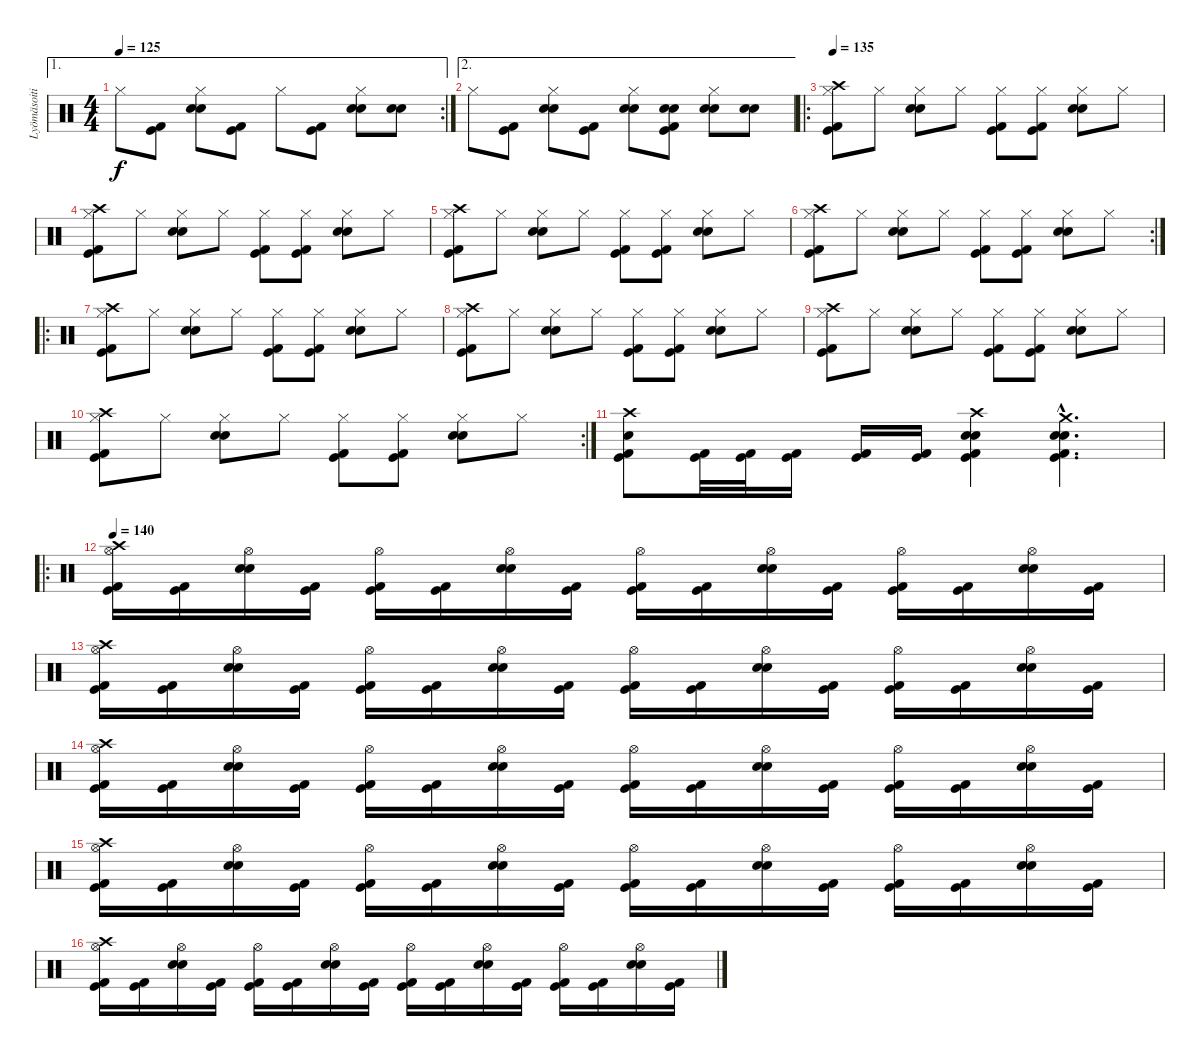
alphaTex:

\track ("Lyömäsoitin" "Lyömäsoiti") {instrument percussion}
\staff {score}
\articulation defaults
\ae 1
\rc 2
\ts (4 4)
\tempo 125
\clef neutral
\ks c "Hi-Hat (closed)".8{dy f}
("Kick (hit) 2" "Kick (hit)").8 ("Electric Snare (hit)" "Hi-Hat (closed)" "Snare (hit) 2").8 ("Kick (hit) 2" "Kick (hit)").8 "Hi-Hat (closed)".8 ("Kick (hit)" "Kick (hit) 2").8 ("Electric Snare (hit)" "Hi-Hat (closed)" "Snare (hit) 2").8 ("Electric Snare (hit)" "Snare (hit) 2").8 |
\ae 2 "Hi-Hat (closed)".8
("Kick (hit) 2" "Kick (hit)").8 ("Electric Snare (hit)" "Hi-Hat (closed)" "Snare (hit) 2").8 ("Kick (hit) 2" "Kick (hit)").8 ("Electric Snare (hit)" "Hi-Hat (closed)" "Snare (hit) 2").8 ("Electric Snare (hit)" "Snare (hit) 2" "Kick (hit)" "Kick (hit) 2").8 ("Electric Snare (hit)" "Hi-Hat (closed)" "Snare (hit) 2").8 ("Electric Snare (hit)" "Snare (hit) 2").8 |
\ro
\tempo 135
("Crash high (hit)" "Hi-Hat (closed)" "Kick (hit)" "Kick (hit) 2").8 "Hi-Hat (closed)".8 ("Snare (hit) 2" "Hi-Hat (closed)" "Electric Snare (hit)").8 "Hi-Hat (closed)".8 ("Hi-Hat (closed)" "Kick (hit)" "Kick (hit) 2").8 ("Hi-Hat (closed)" "Kick (hit)" "Kick (hit) 2").8 ("Snare (hit) 2" "Hi-Hat (closed)" "Electric Snare (hit)").8 "Hi-Hat (closed)".8 |
("Crash high (hit)" "Hi-Hat (closed)" "Kick (hit)" "Kick (hit) 2").8 "Hi-Hat (closed)".8 ("Snare (hit) 2" "Hi-Hat (closed)" "Electric Snare (hit)").8 "Hi-Hat (closed)".8 ("Hi-Hat (closed)" "Kick (hit)" "Kick (hit) 2").8 ("Hi-Hat (closed)" "Kick (hit)" "Kick (hit) 2").8 ("Snare (hit) 2" "Hi-Hat (closed)" "Electric Snare (hit)").8 "Hi-Hat (closed)".8 |
("Crash high (hit)" "Hi-Hat (closed)" "Kick (hit)" "Kick (hit) 2").8 "Hi-Hat (closed)".8 ("Snare (hit) 2" "Hi-Hat (closed)" "Electric Snare (hit)").8 "Hi-Hat (closed)".8 ("Hi-Hat (closed)" "Kick (hit)" "Kick (hit) 2").8 ("Hi-Hat (closed)" "Kick (hit) 2" "Kick (hit)").8 ("Snare (hit) 2" "Hi-Hat (closed)" "Electric Snare (hit)").8 "Hi-Hat (closed)".8 |
\rc 2
("Crash high (hit)" "Hi-Hat (closed)" "Kick (hit)" "Kick (hit) 2").8 "Hi-Hat (closed)".8 ("Snare (hit) 2" "Hi-Hat (closed)" "Electric Snare (hit)").8 "Hi-Hat (closed)".8 ("Hi-Hat (closed)" "Kick (hit)" "Kick (hit) 2").8 ("Hi-Hat (closed)" "Kick (hit) 2" "Kick (hit)").8 ("Snare (hit) 2" "Hi-Hat (closed)" "Electric Snare (hit)").8 "Hi-Hat (closed)".8 |
\ro
("Crash high (hit)" "Hi-Hat (closed)" "Kick (hit)" "Kick (hit) 2").8 "Hi-Hat (closed)".8 ("Snare (hit) 2" "Hi-Hat (closed)" "Electric Snare (hit)").8 "Hi-Hat (closed)".8 ("Hi-Hat (closed)" "Kick (hit)" "Kick (hit) 2").8 ("Hi-Hat (closed)" "Kick (hit)" "Kick (hit) 2").8 ("Snare (hit) 2" "Hi-Hat (closed)" "Electric Snare (hit)").8 "Hi-Hat (closed)".8 |
("Crash high (hit)" "Hi-Hat (closed)" "Kick (hit)" "Kick (hit) 2").8 "Hi-Hat (closed)".8 ("Snare (hit) 2" "Hi-Hat (closed)" "Electric Snare (hit)").8 "Hi-Hat (closed)".8 ("Hi-Hat (closed)" "Kick (hit)" "Kick (hit) 2").8 ("Hi-Hat (closed)" "Kick (hit)" "Kick (hit) 2").8 ("Snare (hit) 2" "Hi-Hat (closed)" "Electric Snare (hit)").8 "Hi-Hat (closed)".8 |
("Crash high (hit)" "Hi-Hat (closed)" "Kick (hit)" "Kick (hit) 2").8 "Hi-Hat (closed)".8 ("Snare (hit) 2" "Hi-Hat (closed)" "Electric Snare (hit)").8 "Hi-Hat (closed)".8 ("Hi-Hat (closed)" "Kick (hit)" "Kick (hit) 2").8 ("Hi-Hat (closed)" "Kick (hit) 2" "Kick (hit)").8 ("Snare (hit) 2" "Hi-Hat (closed)" "Electric Snare (hit)").8 "Hi-Hat (closed)".8 |
\rc 2
("Crash high (hit)" "Hi-Hat (closed)" "Kick (hit)" "Kick (hit) 2").8 "Hi-Hat (closed)".8 ("Snare (hit) 2" "Hi-Hat (closed)" "Electric Snare (hit)").8 "Hi-Hat (closed)".8 ("Hi-Hat (closed)" "Kick (hit)" "Kick (hit) 2").8 ("Hi-Hat (closed)" "Kick (hit) 2" "Kick (hit)").8 ("Snare (hit) 2" "Hi-Hat (closed)" "Electric Snare (hit)").8 "Hi-Hat (closed)".8 |
("Crash high (hit)" "Snare (hit) 2" "Kick (hit) 2" "Kick (hit)").8 ("Kick (hit) 2" "Kick (hit)").32 ("Kick (hit) 2" "Kick (hit)").32 ("Kick (hit) 2" "Kick (hit)").16 ("Kick (hit) 2" "Kick (hit)").16 ("Kick (hit) 2" "Kick (hit)").16 ("Crash high (hit)" "Electric Snare (hit)" "Snare (hit) 2" "Kick (hit) 2" "Kick (hit)").4 ("Crash medium (hit)"{hac} "Electric Snare (hit)"{hac} "Snare (hit) 2"{hac} "Kick (hit) 2"{hac} "Kick (hit)"{hac}).4{d} |
\ro
\tempo 140
("Crash high (hit)" "Hi-Hat (open)" "Kick (hit) 2" "Kick (hit)").16 ("Kick (hit) 2" "Kick (hit)").16 ("Snare (hit) 2" "Hi-Hat (open)" "Electric Snare (hit)").16 ("Kick (hit) 2" "Kick (hit)").16 ("Hi-Hat (open)" "Kick (hit) 2" "Kick (hit)").16 ("Kick (hit) 2" "Kick (hit)").16 ("Snare (hit) 2" "Hi-Hat (open)" "Electric Snare (hit)").16 ("Kick (hit) 2" "Kick (hit)").16 ("Hi-Hat (open)" "Kick (hit) 2" "Kick (hit)").16 ("Kick (hit) 2" "Kick (hit)").16 ("Snare (hit) 2" "Hi-Hat (open)" "Electric Snare (hit)").16 ("Kick (hit) 2" "Kick (hit)").16 ("Hi-Hat (open)" "Kick (hit) 2" "Kick (hit)").16 ("Kick (hit) 2" "Kick (hit)").16 ("Snare (hit) 2" "Hi-Hat (open)" "Electric Snare (hit)").16 ("Kick (hit) 2" "Kick (hit)").16 |
("Crash high (hit)" "Hi-Hat (open)" "Kick (hit) 2" "Kick (hit)").16 ("Kick (hit) 2" "Kick (hit)").16 ("Snare (hit) 2" "Hi-Hat (open)" "Electric Snare (hit)").16 ("Kick (hit) 2" "Kick (hit)").16 ("Hi-Hat (open)" "Kick (hit) 2" "Kick (hit)").16 ("Kick (hit) 2" "Kick (hit)").16 ("Snare (hit) 2" "Hi-Hat (open)" "Electric Snare (hit)").16 ("Kick (hit) 2" "Kick (hit)").16 ("Hi-Hat (open)" "Kick (hit) 2" "Kick (hit)").16 ("Kick (hit) 2" "Kick (hit)").16 ("Snare (hit) 2" "Hi-Hat (open)" "Electric Snare (hit)").16 ("Kick (hit) 2" "Kick (hit)").16 ("Hi-Hat (open)" "Kick (hit) 2" "Kick (hit)").16 ("Kick (hit) 2" "Kick (hit)").16 ("Snare (hit) 2" "Hi-Hat (open)" "Electric Snare (hit)").16 ("Kick (hit) 2" "Kick (hit)").16 |
("Crash high (hit)" "Hi-Hat (open)" "Kick (hit) 2" "Kick (hit)").16 ("Kick (hit) 2" "Kick (hit)").16 ("Snare (hit) 2" "Hi-Hat (open)" "Electric Snare (hit)").16 ("Kick (hit) 2" "Kick (hit)").16 ("Hi-Hat (open)" "Kick (hit) 2" "Kick (hit)").16 ("Kick (hit) 2" "Kick (hit)").16 ("Snare (hit) 2" "Hi-Hat (open)" "Electric Snare (hit)").16 ("Kick (hit) 2" "Kick (hit)").16 ("Hi-Hat (open)" "Kick (hit) 2" "Kick (hit)").16 ("Kick (hit) 2" "Kick (hit)").16 ("Snare (hit) 2" "Hi-Hat (open)" "Electric Snare (hit)").16 ("Kick (hit) 2" "Kick (hit)").16 ("Hi-Hat (open)" "Kick (hit) 2" "Kick (hit)").16 ("Kick (hit) 2" "Kick (hit)").16 ("Snare (hit) 2" "Hi-Hat (open)" "Electric Snare (hit)").16 ("Kick (hit) 2" "Kick (hit)").16 |
("Crash high (hit)" "Hi-Hat (open)" "Kick (hit) 2" "Kick (hit)").16 ("Kick (hit) 2" "Kick (hit)").16 ("Snare (hit) 2" "Hi-Hat (open)" "Electric Snare (hit)").16 ("Kick (hit) 2" "Kick (hit)").16 ("Hi-Hat (open)" "Kick (hit) 2" "Kick (hit)").16 ("Kick (hit) 2" "Kick (hit)").16 ("Snare (hit) 2" "Hi-Hat (open)" "Electric Snare (hit)").16 ("Kick (hit) 2" "Kick (hit)").16 ("Hi-Hat (open)" "Kick (hit) 2" "Kick (hit)").16 ("Kick (hit) 2" "Kick (hit)").16 ("Snare (hit) 2" "Hi-Hat (open)" "Electric Snare (hit)").16 ("Kick (hit) 2" "Kick (hit)").16 ("Hi-Hat (open)" "Kick (hit) 2" "Kick (hit)").16 ("Kick (hit) 2" "Kick (hit)").16 ("Snare (hit) 2" "Hi-Hat (open)" "Electric Snare (hit)").16 ("Kick (hit) 2" "Kick (hit)").16 |
("Crash high (hit)" "Hi-Hat (open)" "Kick (hit) 2" "Kick (hit)").16 ("Kick (hit) 2" "Kick (hit)").16 ("Snare (hit) 2" "Hi-Hat (open)" "Electric Snare (hit)").16 ("Kick (hit) 2" "Kick (hit)").16 ("Hi-Hat (open)" "Kick (hit) 2" "Kick (hit)").16 ("Kick (hit) 2" "Kick (hit)").16 ("Snare (hit) 2" "Hi-Hat (open)" "Electric Snare (hit)").16 ("Kick (hit) 2" "Kick (hit)").16 ("Hi-Hat (open)" "Kick (hit) 2" "Kick (hit)").16 ("Kick (hit) 2" "Kick (hit)").16 ("Snare (hit) 2" "Hi-Hat (open)" "Electric Snare (hit)").16 ("Kick (hit) 2" "Kick (hit)").16 ("Hi-Hat (open)" "Kick (hit) 2" "Kick (hit)").16 ("Kick (hit) 2" "Kick (hit)").16 ("Snare (hit) 2" "Hi-Hat (open)" "Electric Snare (hit)").16 ("Kick (hit) 2" "Kick (hit)").16
